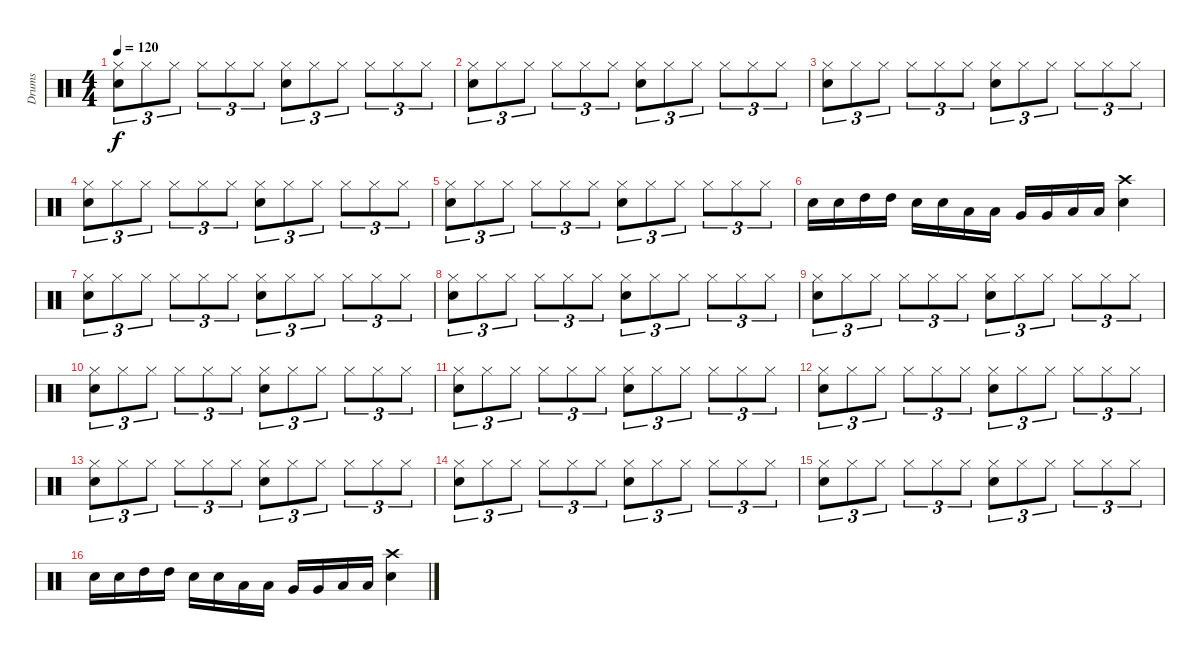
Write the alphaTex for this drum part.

\track ("Drums" "Drums") {instrument percussion}
\staff {score}
\articulation defaults
\ts (4 4)
\tempo 120
\clef neutral
\ks c
("Hi-Hat (closed)" "Electric Snare (hit)").8{tu (3 2) dy f} "Hi-Hat (closed)".8{tu (3 2)} "Hi-Hat (closed)".8{tu (3 2)} "Hi-Hat (closed)".8{tu (3 2)} "Hi-Hat (closed)".8{tu (3 2)} "Hi-Hat (closed)".8{tu (3 2)} ("Hi-Hat (closed)" "Electric Snare (hit)").8{tu (3 2)} "Hi-Hat (closed)".8{tu (3 2)} "Hi-Hat (closed)".8{tu (3 2)} "Hi-Hat (closed)".8{tu (3 2)} "Hi-Hat (closed)".8{tu (3 2)} "Hi-Hat (closed)".8{tu (3 2)} |
("Hi-Hat (closed)" "Electric Snare (hit)").8{tu (3 2)} "Hi-Hat (closed)".8{tu (3 2)} "Hi-Hat (closed)".8{tu (3 2)} "Hi-Hat (closed)".8{tu (3 2)} "Hi-Hat (closed)".8{tu (3 2)} "Hi-Hat (closed)".8{tu (3 2)} ("Hi-Hat (closed)" "Electric Snare (hit)").8{tu (3 2)} "Hi-Hat (closed)".8{tu (3 2)} "Hi-Hat (closed)".8{tu (3 2)} "Hi-Hat (closed)".8{tu (3 2)} "Hi-Hat (closed)".8{tu (3 2)} "Hi-Hat (closed)".8{tu (3 2)} |
("Hi-Hat (closed)" "Electric Snare (hit)").8{tu (3 2)} "Hi-Hat (closed)".8{tu (3 2)} "Hi-Hat (closed)".8{tu (3 2)} "Hi-Hat (closed)".8{tu (3 2)} "Hi-Hat (closed)".8{tu (3 2)} "Hi-Hat (closed)".8{tu (3 2)} ("Hi-Hat (closed)" "Electric Snare (hit)").8{tu (3 2)} "Hi-Hat (closed)".8{tu (3 2)} "Hi-Hat (closed)".8{tu (3 2)} "Hi-Hat (closed)".8{tu (3 2)} "Hi-Hat (closed)".8{tu (3 2)} "Hi-Hat (closed)".8{tu (3 2)} |
("Hi-Hat (closed)" "Electric Snare (hit)").8{tu (3 2)} "Hi-Hat (closed)".8{tu (3 2)} "Hi-Hat (closed)".8{tu (3 2)} "Hi-Hat (closed)".8{tu (3 2)} "Hi-Hat (closed)".8{tu (3 2)} "Hi-Hat (closed)".8{tu (3 2)} ("Hi-Hat (closed)" "Electric Snare (hit)").8{tu (3 2)} "Hi-Hat (closed)".8{tu (3 2)} "Hi-Hat (closed)".8{tu (3 2)} "Hi-Hat (closed)".8{tu (3 2)} "Hi-Hat (closed)".8{tu (3 2)} "Hi-Hat (closed)".8{tu (3 2)} |
("Hi-Hat (closed)" "Electric Snare (hit)").8{tu (3 2)} "Hi-Hat (closed)".8{tu (3 2)} "Hi-Hat (closed)".8{tu (3 2)} "Hi-Hat (closed)".8{tu (3 2)} "Hi-Hat (closed)".8{tu (3 2)} "Hi-Hat (closed)".8{tu (3 2)} ("Hi-Hat (closed)" "Electric Snare (hit)").8{tu (3 2)} "Hi-Hat (closed)".8{tu (3 2)} "Hi-Hat (closed)".8{tu (3 2)} "Hi-Hat (closed)".8{tu (3 2)} "Hi-Hat (closed)".8{tu (3 2)} "Hi-Hat (closed)".8{tu (3 2)} |
"Electric Snare (hit)".16 "Electric Snare (hit)".16 "High Tom (hit)".16 "High Tom (hit)".16 "Electric Snare (hit)".16 "Electric Snare (hit)".16 "Low Tom (hit)".16 "Low Tom (hit)".16 "Very Low Tom (hit)".16 "Very Low Tom (hit)".16 "Low Floor Tom (hit)".16 "Low Floor Tom (hit)".16 ("Crash high (hit)" "Electric Snare (hit)").4 |
("Hi-Hat (closed)" "Electric Snare (hit)").8{tu (3 2)} "Hi-Hat (closed)".8{tu (3 2)} "Hi-Hat (closed)".8{tu (3 2)} "Hi-Hat (closed)".8{tu (3 2)} "Hi-Hat (closed)".8{tu (3 2)} "Hi-Hat (closed)".8{tu (3 2)} ("Hi-Hat (closed)" "Electric Snare (hit)").8{tu (3 2)} "Hi-Hat (closed)".8{tu (3 2)} "Hi-Hat (closed)".8{tu (3 2)} "Hi-Hat (closed)".8{tu (3 2)} "Hi-Hat (closed)".8{tu (3 2)} "Hi-Hat (closed)".8{tu (3 2)} |
("Hi-Hat (closed)" "Electric Snare (hit)").8{tu (3 2)} "Hi-Hat (closed)".8{tu (3 2)} "Hi-Hat (closed)".8{tu (3 2)} "Hi-Hat (closed)".8{tu (3 2)} "Hi-Hat (closed)".8{tu (3 2)} "Hi-Hat (closed)".8{tu (3 2)} ("Hi-Hat (closed)" "Electric Snare (hit)").8{tu (3 2)} "Hi-Hat (closed)".8{tu (3 2)} "Hi-Hat (closed)".8{tu (3 2)} "Hi-Hat (closed)".8{tu (3 2)} "Hi-Hat (closed)".8{tu (3 2)} "Hi-Hat (closed)".8{tu (3 2)} |
("Hi-Hat (closed)" "Electric Snare (hit)").8{tu (3 2)} "Hi-Hat (closed)".8{tu (3 2)} "Hi-Hat (closed)".8{tu (3 2)} "Hi-Hat (closed)".8{tu (3 2)} "Hi-Hat (closed)".8{tu (3 2)} "Hi-Hat (closed)".8{tu (3 2)} ("Hi-Hat (closed)" "Electric Snare (hit)").8{tu (3 2)} "Hi-Hat (closed)".8{tu (3 2)} "Hi-Hat (closed)".8{tu (3 2)} "Hi-Hat (closed)".8{tu (3 2)} "Hi-Hat (closed)".8{tu (3 2)} "Hi-Hat (closed)".8{tu (3 2)} |
("Hi-Hat (closed)" "Electric Snare (hit)").8{tu (3 2)} "Hi-Hat (closed)".8{tu (3 2)} "Hi-Hat (closed)".8{tu (3 2)} "Hi-Hat (closed)".8{tu (3 2)} "Hi-Hat (closed)".8{tu (3 2)} "Hi-Hat (closed)".8{tu (3 2)} ("Hi-Hat (closed)" "Electric Snare (hit)").8{tu (3 2)} "Hi-Hat (closed)".8{tu (3 2)} "Hi-Hat (closed)".8{tu (3 2)} "Hi-Hat (closed)".8{tu (3 2)} "Hi-Hat (closed)".8{tu (3 2)} "Hi-Hat (closed)".8{tu (3 2)} |
("Hi-Hat (closed)" "Electric Snare (hit)").8{tu (3 2)} "Hi-Hat (closed)".8{tu (3 2)} "Hi-Hat (closed)".8{tu (3 2)} "Hi-Hat (closed)".8{tu (3 2)} "Hi-Hat (closed)".8{tu (3 2)} "Hi-Hat (closed)".8{tu (3 2)} ("Hi-Hat (closed)" "Electric Snare (hit)").8{tu (3 2)} "Hi-Hat (closed)".8{tu (3 2)} "Hi-Hat (closed)".8{tu (3 2)} "Hi-Hat (closed)".8{tu (3 2)} "Hi-Hat (closed)".8{tu (3 2)} "Hi-Hat (closed)".8{tu (3 2)} |
("Hi-Hat (closed)" "Electric Snare (hit)").8{tu (3 2)} "Hi-Hat (closed)".8{tu (3 2)} "Hi-Hat (closed)".8{tu (3 2)} "Hi-Hat (closed)".8{tu (3 2)} "Hi-Hat (closed)".8{tu (3 2)} "Hi-Hat (closed)".8{tu (3 2)} ("Hi-Hat (closed)" "Electric Snare (hit)").8{tu (3 2)} "Hi-Hat (closed)".8{tu (3 2)} "Hi-Hat (closed)".8{tu (3 2)} "Hi-Hat (closed)".8{tu (3 2)} "Hi-Hat (closed)".8{tu (3 2)} "Hi-Hat (closed)".8{tu (3 2)} |
("Hi-Hat (closed)" "Electric Snare (hit)").8{tu (3 2)} "Hi-Hat (closed)".8{tu (3 2)} "Hi-Hat (closed)".8{tu (3 2)} "Hi-Hat (closed)".8{tu (3 2)} "Hi-Hat (closed)".8{tu (3 2)} "Hi-Hat (closed)".8{tu (3 2)} ("Hi-Hat (closed)" "Electric Snare (hit)").8{tu (3 2)} "Hi-Hat (closed)".8{tu (3 2)} "Hi-Hat (closed)".8{tu (3 2)} "Hi-Hat (closed)".8{tu (3 2)} "Hi-Hat (closed)".8{tu (3 2)} "Hi-Hat (closed)".8{tu (3 2)} |
("Hi-Hat (closed)" "Electric Snare (hit)").8{tu (3 2)} "Hi-Hat (closed)".8{tu (3 2)} "Hi-Hat (closed)".8{tu (3 2)} "Hi-Hat (closed)".8{tu (3 2)} "Hi-Hat (closed)".8{tu (3 2)} "Hi-Hat (closed)".8{tu (3 2)} ("Hi-Hat (closed)" "Electric Snare (hit)").8{tu (3 2)} "Hi-Hat (closed)".8{tu (3 2)} "Hi-Hat (closed)".8{tu (3 2)} "Hi-Hat (closed)".8{tu (3 2)} "Hi-Hat (closed)".8{tu (3 2)} "Hi-Hat (closed)".8{tu (3 2)} |
("Hi-Hat (closed)" "Electric Snare (hit)").8{tu (3 2)} "Hi-Hat (closed)".8{tu (3 2)} "Hi-Hat (closed)".8{tu (3 2)} "Hi-Hat (closed)".8{tu (3 2)} "Hi-Hat (closed)".8{tu (3 2)} "Hi-Hat (closed)".8{tu (3 2)} ("Hi-Hat (closed)" "Electric Snare (hit)").8{tu (3 2)} "Hi-Hat (closed)".8{tu (3 2)} "Hi-Hat (closed)".8{tu (3 2)} "Hi-Hat (closed)".8{tu (3 2)} "Hi-Hat (closed)".8{tu (3 2)} "Hi-Hat (closed)".8{tu (3 2)} |
"Electric Snare (hit)".16 "Electric Snare (hit)".16 "High Tom (hit)".16 "High Tom (hit)".16 "Electric Snare (hit)".16 "Electric Snare (hit)".16 "Low Tom (hit)".16 "Low Tom (hit)".16 "Very Low Tom (hit)".16 "Very Low Tom (hit)".16 "Low Floor Tom (hit)".16 "Low Floor Tom (hit)".16 ("Crash high (hit)" "Electric Snare (hit)").4
